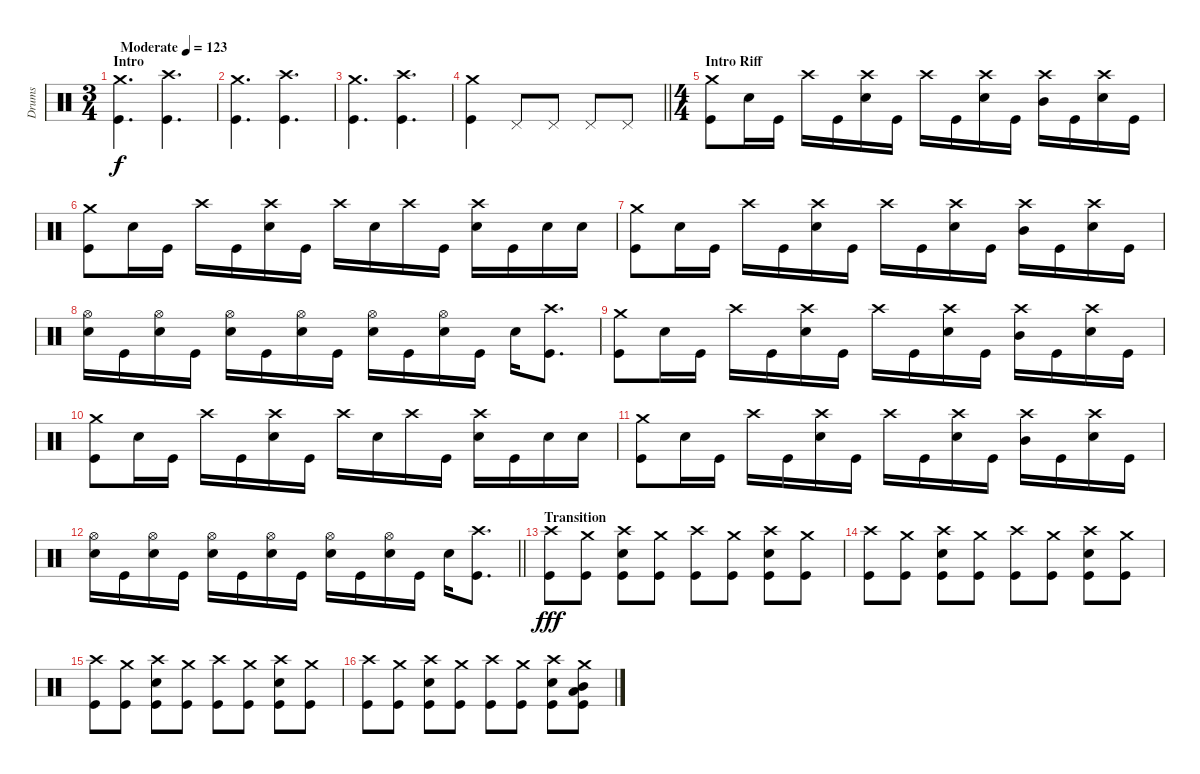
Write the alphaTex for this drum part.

\track ("Drums" "Drums") {instrument percussion}
\staff {score}
\articulation defaults
\ts (3 4)
\section ("" "Intro")
\tempo (123 "Moderate")
\clef neutral
\ks c
("Crash medium (hit)" "Kick (hit)").4{d dy f} ("Crash high (hit)" "Kick (hit)").4{d} |
("Crash medium (hit)" "Kick (hit)").4{d} ("Crash high (hit)" "Kick (hit)").4{d} |
("Crash medium (hit)" "Kick (hit)").4{d} ("Crash high (hit)" "Kick (hit)").4{d} |
\barLineRight lightlight
("Crash medium (hit)" "Kick (hit)").4 "Pedal Hi-Hat (hit)".8 "Pedal Hi-Hat (hit)".8 "Pedal Hi-Hat (hit)".8 "Pedal Hi-Hat (hit)".8 |
\ts (4 4)
\section ("" "Intro Riff")
("Crash medium (hit)" "Kick (hit)").8 "Snare (hit) 2".16 "Kick (hit)".16 "Crash high (hit)".16 "Kick (hit)".16 ("Crash high (hit)" "Snare (hit) 2").16 "Kick (hit)".16 "Crash high (hit)".16 "Kick (hit)".16 ("Crash high (hit)" "Snare (hit) 2").16 "Kick (hit)".16 ("Crash high (hit)" "Mid Tom (hit)").16 "Kick (hit)".16 ("Crash high (hit)" "Snare (hit) 2").16 "Kick (hit)".16 |
("Crash medium (hit)" "Kick (hit)").8 "Snare (hit) 2".16 "Kick (hit)".16 "Crash high (hit)".16 "Kick (hit)".16 ("Crash high (hit)" "Snare (hit) 2").16 "Kick (hit)".16 "Crash high (hit)".16 "Snare (hit) 2".16 "Crash high (hit)".16 "Kick (hit)".16 ("Crash high (hit)" "Snare (hit) 2").16 "Kick (hit)".16 "Snare (hit) 2".16 "Snare (hit) 2".16 |
("Crash medium (hit)" "Kick (hit)").8 "Snare (hit) 2".16 "Kick (hit)".16 "Crash high (hit)".16 "Kick (hit)".16 ("Crash high (hit)" "Snare (hit) 2").16 "Kick (hit)".16 "Crash high (hit)".16 "Kick (hit)".16 ("Crash high (hit)" "Snare (hit) 2").16 "Kick (hit)".16 ("Crash high (hit)" "Mid Tom (hit)").16 "Kick (hit)".16 ("Crash high (hit)" "Snare (hit) 2").16 "Kick (hit)".16 |
("Hi-Hat (open)" "Snare (hit) 2").16 "Kick (hit)".16 ("Hi-Hat (open)" "Snare (hit) 2").16 "Kick (hit)".16 ("Hi-Hat (open)" "Snare (hit) 2").16 "Kick (hit)".16 ("Hi-Hat (open)" "Snare (hit) 2").16 "Kick (hit)".16 ("Hi-Hat (open)" "Snare (hit) 2").16 "Kick (hit)".16 ("Hi-Hat (open)" "Snare (hit) 2").16 "Kick (hit)".16 "Snare (hit) 2".16 ("Crash high (hit)" "Kick (hit)").8{d} |
("Crash medium (hit)" "Kick (hit)").8 "Snare (hit) 2".16 "Kick (hit)".16 "Crash high (hit)".16 "Kick (hit)".16 ("Crash high (hit)" "Snare (hit) 2").16 "Kick (hit)".16 "Crash high (hit)".16 "Kick (hit)".16 ("Crash high (hit)" "Snare (hit) 2").16 "Kick (hit)".16 ("Crash high (hit)" "Mid Tom (hit)").16 "Kick (hit)".16 ("Crash high (hit)" "Snare (hit) 2").16 "Kick (hit)".16 |
("Crash medium (hit)" "Kick (hit)").8 "Snare (hit) 2".16 "Kick (hit)".16 "Crash high (hit)".16 "Kick (hit)".16 ("Crash high (hit)" "Snare (hit) 2").16 "Kick (hit)".16 "Crash high (hit)".16 "Snare (hit) 2".16 "Crash high (hit)".16 "Kick (hit)".16 ("Crash high (hit)" "Snare (hit) 2").16 "Kick (hit)".16 "Snare (hit) 2".16 "Snare (hit) 2".16 |
("Crash medium (hit)" "Kick (hit)").8 "Snare (hit) 2".16 "Kick (hit)".16 "Crash high (hit)".16 "Kick (hit)".16 ("Crash high (hit)" "Snare (hit) 2").16 "Kick (hit)".16 "Crash high (hit)".16 "Kick (hit)".16 ("Crash high (hit)" "Snare (hit) 2").16 "Kick (hit)".16 ("Crash high (hit)" "Mid Tom (hit)").16 "Kick (hit)".16 ("Crash high (hit)" "Snare (hit) 2").16 "Kick (hit)".16 |
\barLineRight lightlight
("Hi-Hat (open)" "Snare (hit) 2").16 "Kick (hit)".16 ("Hi-Hat (open)" "Snare (hit) 2").16 "Kick (hit)".16 ("Hi-Hat (open)" "Snare (hit) 2").16 "Kick (hit)".16 ("Hi-Hat (open)" "Snare (hit) 2").16 "Kick (hit)".16 ("Hi-Hat (open)" "Snare (hit) 2").16 "Kick (hit)".16 ("Hi-Hat (open)" "Snare (hit) 2").16 "Kick (hit)".16 "Snare (hit) 2".16 ("Crash high (hit)" "Kick (hit)").8{d} |
\section ("" "Transition")
("Crash high (hit)" "Kick (hit)").8{dy fff} ("Crash medium (hit)" "Kick (hit)").8 ("Crash high (hit)" "Snare (hit) 2" "Kick (hit)").8 ("Crash medium (hit)" "Kick (hit)").8 ("Crash high (hit)" "Kick (hit)").8 ("Crash medium (hit)" "Kick (hit)").8 ("Crash high (hit)" "Snare (hit) 2" "Kick (hit)").8 ("Crash medium (hit)" "Kick (hit)").8 |
("Crash high (hit)" "Kick (hit)").8 ("Crash medium (hit)" "Kick (hit)").8 ("Crash high (hit)" "Snare (hit) 2" "Kick (hit)").8 ("Crash medium (hit)" "Kick (hit)").8 ("Crash high (hit)" "Kick (hit)").8 ("Crash medium (hit)" "Kick (hit)").8 ("Crash high (hit)" "Snare (hit) 2" "Kick (hit)").8 ("Crash medium (hit)" "Kick (hit)").8 |
("Crash high (hit)" "Kick (hit)").8 ("Crash medium (hit)" "Kick (hit)").8 ("Crash high (hit)" "Snare (hit) 2" "Kick (hit)").8 ("Crash medium (hit)" "Kick (hit)").8 ("Crash high (hit)" "Kick (hit)").8 ("Crash medium (hit)" "Kick (hit)").8 ("Crash high (hit)" "Snare (hit) 2" "Kick (hit)").8 ("Crash medium (hit)" "Kick (hit)").8 |
("Crash high (hit)" "Kick (hit)").8 ("Crash medium (hit)" "Kick (hit)").8 ("Crash high (hit)" "Snare (hit) 2" "Kick (hit)").8 ("Crash medium (hit)" "Kick (hit)").8 ("Crash high (hit)" "Kick (hit)").8 ("Crash medium (hit)" "Kick (hit)").8 ("Crash high (hit)" "Snare (hit) 2" "Kick (hit)").8 ("Mid Tom (hit)" "Crash medium (hit)" "Low Tom (hit)" "Kick (hit)").8
